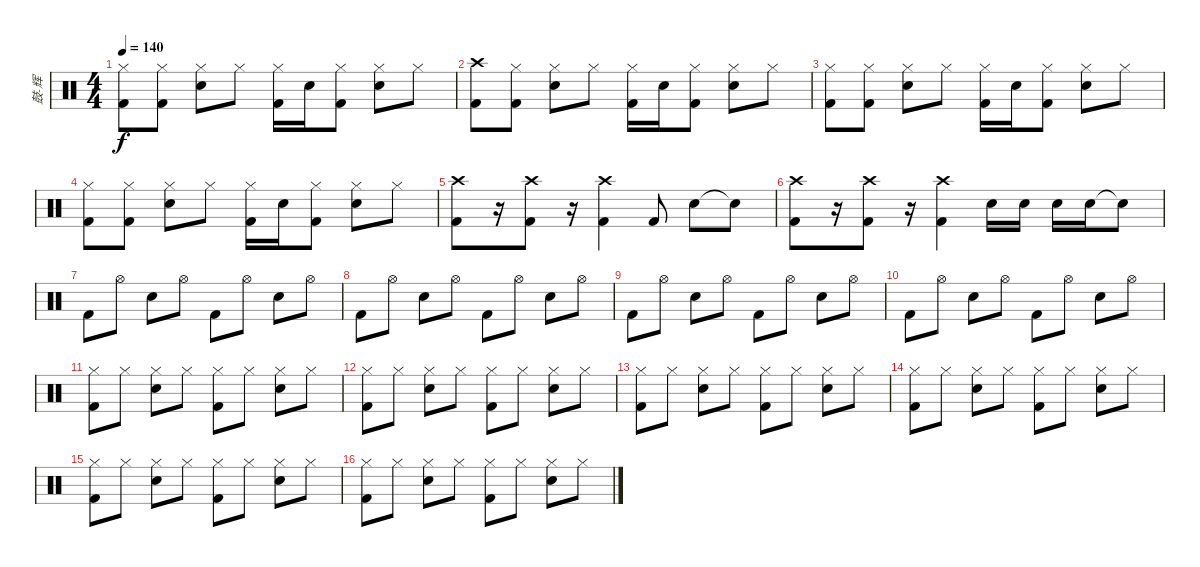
\track ("鼓-辉" "鼓-辉") {instrument percussion}
\staff {score}
\articulation defaults
\ts (4 4)
\tempo 140
\clef neutral
\ks c
("Hi-Hat (closed)" "Kick (hit) 2").8{dy f} ("Hi-Hat (closed)" "Kick (hit) 2").8 ("Hi-Hat (closed)" "Snare (hit) 2").8 "Hi-Hat (closed)".8 ("Hi-Hat (closed)" "Kick (hit) 2").16 "Snare (hit) 2".16 ("Hi-Hat (closed)" "Kick (hit) 2").8 ("Hi-Hat (closed)" "Snare (hit) 2").8 "Hi-Hat (closed)".8 |
("Crash high (hit)" "Kick (hit) 2").8 ("Hi-Hat (closed)" "Kick (hit) 2").8 ("Hi-Hat (closed)" "Snare (hit) 2").8 "Hi-Hat (closed)".8 ("Hi-Hat (closed)" "Kick (hit) 2").16 "Snare (hit) 2".16 ("Hi-Hat (closed)" "Kick (hit) 2").8 ("Hi-Hat (closed)" "Snare (hit) 2").8 "Hi-Hat (closed)".8 |
("Hi-Hat (closed)" "Kick (hit) 2").8 ("Hi-Hat (closed)" "Kick (hit) 2").8 ("Hi-Hat (closed)" "Snare (hit) 2").8 "Hi-Hat (closed)".8 ("Hi-Hat (closed)" "Kick (hit) 2").16 "Snare (hit) 2".16 ("Hi-Hat (closed)" "Kick (hit) 2").8 ("Hi-Hat (closed)" "Snare (hit) 2").8 "Hi-Hat (closed)".8 |
("Hi-Hat (closed)" "Kick (hit) 2").8 ("Hi-Hat (closed)" "Kick (hit) 2").8 ("Hi-Hat (closed)" "Snare (hit) 2").8 "Hi-Hat (closed)".8 ("Hi-Hat (closed)" "Kick (hit) 2").16 "Snare (hit) 2".16 ("Hi-Hat (closed)" "Kick (hit) 2").8 ("Hi-Hat (closed)" "Snare (hit) 2").8 "Hi-Hat (closed)".8 |
("Crash high (hit)" "Kick (hit) 2").8 r.16 ("Crash high (hit)" "Kick (hit) 2").8 r.16 ("Crash high (hit)" "Kick (hit) 2").4 "Kick (hit) 2".8 "Snare (hit) 2".8 "Snare (hit) 2"{t}.8 |
("Crash high (hit)" "Kick (hit) 2").8 r.16 ("Crash high (hit)" "Kick (hit) 2").8 r.16 ("Crash high (hit)" "Kick (hit) 2").4 "Snare (hit) 2".16 "Snare (hit) 2".16 "Snare (hit) 2".16 "Snare (hit) 2".16 "Snare (hit) 2"{t}.8 |
"Kick (hit) 2".8 "Hi-Hat (open)".8 "Snare (hit) 2".8 "Hi-Hat (open)".8 "Kick (hit) 2".8 "Hi-Hat (open)".8 "Snare (hit) 2".8 "Hi-Hat (open)".8 |
"Kick (hit) 2".8 "Hi-Hat (open)".8 "Snare (hit) 2".8 "Hi-Hat (open)".8 "Kick (hit) 2".8 "Hi-Hat (open)".8 "Snare (hit) 2".8 "Hi-Hat (open)".8 |
"Kick (hit) 2".8 "Hi-Hat (open)".8 "Snare (hit) 2".8 "Hi-Hat (open)".8 "Kick (hit) 2".8 "Hi-Hat (open)".8 "Snare (hit) 2".8 "Hi-Hat (open)".8 |
"Kick (hit) 2".8 "Hi-Hat (open)".8 "Snare (hit) 2".8 "Hi-Hat (open)".8 "Kick (hit) 2".8 "Hi-Hat (open)".8 "Snare (hit) 2".8 "Hi-Hat (open)".8 |
("Hi-Hat (closed)" "Kick (hit) 2").8 "Hi-Hat (closed)".8 ("Hi-Hat (closed)" "Snare (hit) 2").8 "Hi-Hat (closed)".8 ("Hi-Hat (closed)" "Kick (hit) 2").8 "Hi-Hat (closed)".8 ("Hi-Hat (closed)" "Snare (hit) 2").8 "Hi-Hat (closed)".8 |
("Hi-Hat (closed)" "Kick (hit) 2").8 "Hi-Hat (closed)".8 ("Hi-Hat (closed)" "Snare (hit) 2").8 "Hi-Hat (closed)".8 ("Hi-Hat (closed)" "Kick (hit) 2").8 "Hi-Hat (closed)".8 ("Hi-Hat (closed)" "Snare (hit) 2").8 "Hi-Hat (closed)".8 |
("Hi-Hat (closed)" "Kick (hit) 2").8 "Hi-Hat (closed)".8 ("Hi-Hat (closed)" "Snare (hit) 2").8 "Hi-Hat (closed)".8 ("Hi-Hat (closed)" "Kick (hit) 2").8 "Hi-Hat (closed)".8 ("Hi-Hat (closed)" "Snare (hit) 2").8 "Hi-Hat (closed)".8 |
("Hi-Hat (closed)" "Kick (hit) 2").8 "Hi-Hat (closed)".8 ("Hi-Hat (closed)" "Snare (hit) 2").8 "Hi-Hat (closed)".8 ("Hi-Hat (closed)" "Kick (hit) 2").8 "Hi-Hat (closed)".8 ("Hi-Hat (closed)" "Snare (hit) 2").8 "Hi-Hat (closed)".8 |
("Hi-Hat (closed)" "Kick (hit) 2").8 "Hi-Hat (closed)".8 ("Hi-Hat (closed)" "Snare (hit) 2").8 "Hi-Hat (closed)".8 ("Hi-Hat (closed)" "Kick (hit) 2").8 "Hi-Hat (closed)".8 ("Hi-Hat (closed)" "Snare (hit) 2").8 "Hi-Hat (closed)".8 |
("Hi-Hat (closed)" "Kick (hit) 2").8 "Hi-Hat (closed)".8 ("Hi-Hat (closed)" "Snare (hit) 2").8 "Hi-Hat (closed)".8 ("Hi-Hat (closed)" "Kick (hit) 2").8 "Hi-Hat (closed)".8 ("Hi-Hat (closed)" "Snare (hit) 2").8 "Hi-Hat (closed)".8
